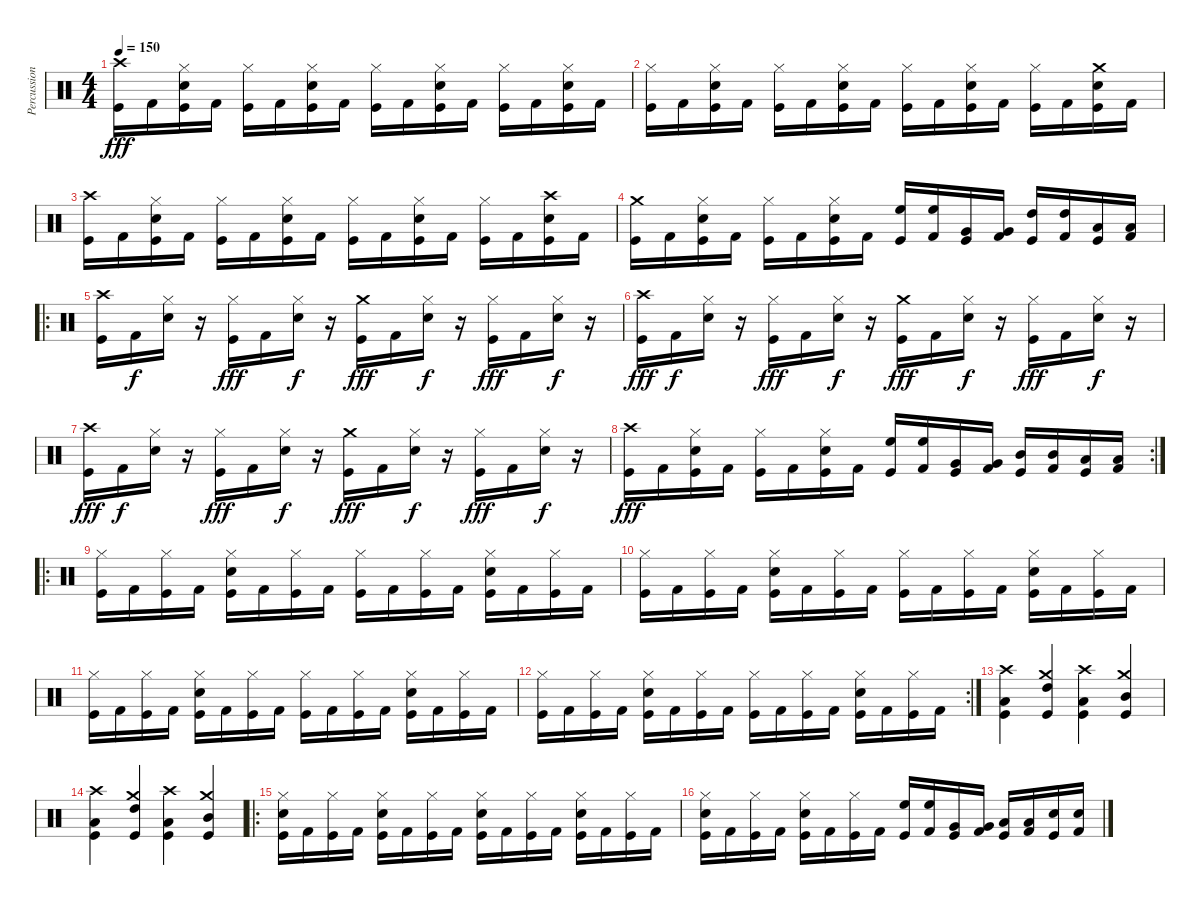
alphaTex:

\track ("Percussion" "Percussion") {instrument percussion}
\staff {score}
\articulation defaults
\ts (4 4)
\tempo 150
\clef neutral
\ks c
("Crash high (hit)" "Kick (hit)").16{dy fff} "Kick (hit) 2".16 ("Hi-Hat (closed)" "Electric Snare (hit)" "Kick (hit)").16 "Kick (hit) 2".16 ("Hi-Hat (closed)" "Kick (hit)").16 "Kick (hit) 2".16 ("Hi-Hat (closed)" "Electric Snare (hit)" "Kick (hit)").16 "Kick (hit) 2".16 ("Hi-Hat (closed)" "Kick (hit)").16 "Kick (hit) 2".16 ("Hi-Hat (closed)" "Electric Snare (hit)" "Kick (hit)").16 "Kick (hit) 2".16 ("Hi-Hat (closed)" "Kick (hit)").16 "Kick (hit) 2".16 ("Hi-Hat (closed)" "Electric Snare (hit)" "Kick (hit)").16 "Kick (hit) 2".16 |
("Hi-Hat (closed)" "Kick (hit)").16 "Kick (hit) 2".16 ("Hi-Hat (closed)" "Electric Snare (hit)" "Kick (hit)").16 "Kick (hit) 2".16 ("Hi-Hat (closed)" "Kick (hit)").16 "Kick (hit) 2".16 ("Hi-Hat (closed)" "Electric Snare (hit)" "Kick (hit)").16 "Kick (hit) 2".16 ("Hi-Hat (closed)" "Kick (hit)").16 "Kick (hit) 2".16 ("Hi-Hat (closed)" "Electric Snare (hit)" "Kick (hit)").16 "Kick (hit) 2".16 ("Hi-Hat (closed)" "Kick (hit)").16 "Kick (hit) 2".16 ("Crash medium (hit)" "Electric Snare (hit)" "Kick (hit)").16 "Kick (hit) 2".16 |
("Crash high (hit)" "Kick (hit)").16 "Kick (hit) 2".16 ("Hi-Hat (closed)" "Electric Snare (hit)" "Kick (hit)").16 "Kick (hit) 2".16 ("Hi-Hat (closed)" "Kick (hit)").16 "Kick (hit) 2".16 ("Hi-Hat (closed)" "Electric Snare (hit)" "Kick (hit)").16 "Kick (hit) 2".16 ("Hi-Hat (closed)" "Kick (hit)").16 "Kick (hit) 2".16 ("Hi-Hat (closed)" "Electric Snare (hit)" "Kick (hit)").16 "Kick (hit) 2".16 ("Hi-Hat (closed)" "Kick (hit)").16 "Kick (hit) 2".16 ("Crash high (hit)" "Electric Snare (hit)" "Kick (hit)").16 "Kick (hit) 2".16 |
("Crash medium (hit)" "Kick (hit)").16 "Kick (hit) 2".16 ("Hi-Hat (closed)" "Electric Snare (hit)" "Kick (hit)").16 "Kick (hit) 2".16 ("Hi-Hat (closed)" "Kick (hit)").16 "Kick (hit) 2".16 ("Hi-Hat (closed)" "Electric Snare (hit)" "Kick (hit)").16 "Kick (hit) 2".16 ("High Floor Tom (hit)" "Kick (hit)").16 ("High Floor Tom (hit)" "Kick (hit) 2").16 ("Very Low Tom (hit)" "Kick (hit)").16 ("Very Low Tom (hit)" "Kick (hit) 2").16 ("High Tom (hit)" "Kick (hit)").16 ("High Tom (hit)" "Kick (hit) 2").16 ("Low Floor Tom (hit)" "Kick (hit)").16 ("Low Floor Tom (hit)" "Kick (hit) 2").16 |
\ro
("Crash high (hit)" "Kick (hit)").16 "Kick (hit) 2".16{dy f} ("Hi-Hat (closed)" "Electric Snare (hit)").16 r.16 ("Hi-Hat (closed)" "Kick (hit)").16{dy fff} "Kick (hit) 2".16 ("Hi-Hat (closed)" "Electric Snare (hit)").16{dy f} r.16 ("Crash medium (hit)" "Kick (hit)").16{dy fff} "Kick (hit) 2".16 ("Hi-Hat (closed)" "Electric Snare (hit)").16{dy f} r.16 ("Hi-Hat (closed)" "Kick (hit)").16{dy fff} "Kick (hit) 2".16 ("Hi-Hat (closed)" "Electric Snare (hit)").16{dy f} r.16 |
("Crash high (hit)" "Kick (hit)").16{dy fff} "Kick (hit) 2".16{dy f} ("Hi-Hat (closed)" "Electric Snare (hit)").16 r.16 ("Hi-Hat (closed)" "Kick (hit)").16{dy fff} "Kick (hit) 2".16 ("Hi-Hat (closed)" "Electric Snare (hit)").16{dy f} r.16 ("Crash medium (hit)" "Kick (hit)").16{dy fff} "Kick (hit) 2".16 ("Hi-Hat (closed)" "Electric Snare (hit)").16{dy f} r.16 ("Hi-Hat (closed)" "Kick (hit)").16{dy fff} "Kick (hit) 2".16 ("Hi-Hat (closed)" "Electric Snare (hit)").16{dy f} r.16 |
("Crash high (hit)" "Kick (hit)").16{dy fff} "Kick (hit) 2".16{dy f} ("Hi-Hat (closed)" "Electric Snare (hit)").16 r.16 ("Hi-Hat (closed)" "Kick (hit)").16{dy fff} "Kick (hit) 2".16 ("Hi-Hat (closed)" "Electric Snare (hit)").16{dy f} r.16 ("Crash medium (hit)" "Kick (hit)").16{dy fff} "Kick (hit) 2".16 ("Hi-Hat (closed)" "Electric Snare (hit)").16{dy f} r.16 ("Hi-Hat (closed)" "Kick (hit)").16{dy fff} "Kick (hit) 2".16 ("Hi-Hat (closed)" "Electric Snare (hit)").16{dy f} r.16 |
\rc 2
("Crash high (hit)" "Kick (hit)").16{dy fff} "Kick (hit) 2".16 ("Hi-Hat (closed)" "Electric Snare (hit)" "Kick (hit)").16 "Kick (hit) 2".16 ("Hi-Hat (closed)" "Kick (hit)").16 "Kick (hit) 2".16 ("Hi-Hat (closed)" "Electric Snare (hit)" "Kick (hit)").16 "Kick (hit) 2".16 ("High Floor Tom (hit)" "Kick (hit)").16 ("High Floor Tom (hit)" "Kick (hit) 2").16 ("Very Low Tom (hit)" "Kick (hit)").16 ("Very Low Tom (hit)" "Kick (hit) 2").16 ("Mid Tom (hit)" "Kick (hit)").16 ("Mid Tom (hit)" "Kick (hit) 2").16 ("Low Floor Tom (hit)" "Kick (hit)").16 ("Low Floor Tom (hit)" "Kick (hit) 2").16 |
\ro
("Hi-Hat (closed)" "Kick (hit)").16 "Kick (hit) 2".16 ("Hi-Hat (closed)" "Kick (hit)").16 "Kick (hit) 2".16 ("Hi-Hat (closed)" "Electric Snare (hit)" "Kick (hit)").16 "Kick (hit) 2".16 ("Hi-Hat (closed)" "Kick (hit)").16 "Kick (hit) 2".16 ("Hi-Hat (closed)" "Kick (hit)").16 "Kick (hit) 2".16 ("Hi-Hat (closed)" "Kick (hit)").16 "Kick (hit) 2".16 ("Hi-Hat (closed)" "Electric Snare (hit)" "Kick (hit)").16 "Kick (hit) 2".16 ("Hi-Hat (closed)" "Kick (hit)").16 "Kick (hit) 2".16 |
("Hi-Hat (closed)" "Kick (hit)").16 "Kick (hit) 2".16 ("Hi-Hat (closed)" "Kick (hit)").16 "Kick (hit) 2".16 ("Hi-Hat (closed)" "Electric Snare (hit)" "Kick (hit)").16 "Kick (hit) 2".16 ("Hi-Hat (closed)" "Kick (hit)").16 "Kick (hit) 2".16 ("Hi-Hat (closed)" "Kick (hit)").16 "Kick (hit) 2".16 ("Hi-Hat (closed)" "Kick (hit)").16 "Kick (hit) 2".16 ("Hi-Hat (closed)" "Electric Snare (hit)" "Kick (hit)").16 "Kick (hit) 2".16 ("Hi-Hat (closed)" "Kick (hit)").16 "Kick (hit) 2".16 |
("Hi-Hat (closed)" "Kick (hit)").16 "Kick (hit) 2".16 ("Hi-Hat (closed)" "Kick (hit)").16 "Kick (hit) 2".16 ("Hi-Hat (closed)" "Electric Snare (hit)" "Kick (hit)").16 "Kick (hit) 2".16 ("Hi-Hat (closed)" "Kick (hit)").16 "Kick (hit) 2".16 ("Hi-Hat (closed)" "Kick (hit)").16 "Kick (hit) 2".16 ("Hi-Hat (closed)" "Kick (hit)").16 "Kick (hit) 2".16 ("Hi-Hat (closed)" "Electric Snare (hit)" "Kick (hit)").16 "Kick (hit) 2".16 ("Hi-Hat (closed)" "Kick (hit)").16 "Kick (hit) 2".16 |
\rc 2
("Hi-Hat (closed)" "Kick (hit)").16 "Kick (hit) 2".16 ("Hi-Hat (closed)" "Kick (hit)").16 "Kick (hit) 2".16 ("Hi-Hat (closed)" "Electric Snare (hit)" "Kick (hit)").16 "Kick (hit) 2".16 ("Hi-Hat (closed)" "Kick (hit)").16 "Kick (hit) 2".16 ("Hi-Hat (closed)" "Kick (hit)").16 "Kick (hit) 2".16 ("Hi-Hat (closed)" "Kick (hit)").16 "Kick (hit) 2".16 ("Hi-Hat (closed)" "Electric Snare (hit)" "Kick (hit)").16 "Kick (hit) 2".16 ("Hi-Hat (closed)" "Kick (hit)").16 "Kick (hit) 2".16 |
("Crash high (hit)" "Low Tom (hit)" "Kick (hit)").4 ("Crash medium (hit)" "High Tom (hit)" "Kick (hit)").4 ("Crash high (hit)" "Low Floor Tom (hit)" "Kick (hit)").4 ("Crash medium (hit)" "Mid Tom (hit)" "Kick (hit)").4 |
("Crash high (hit)" "Low Tom (hit)" "Kick (hit)").4 ("Crash medium (hit)" "High Tom (hit)" "Kick (hit)").4 ("Crash high (hit)" "Low Floor Tom (hit)" "Kick (hit)").4 ("Crash medium (hit)" "Mid Tom (hit)" "Kick (hit)").4 |
\ro
("Hi-Hat (closed)" "Electric Snare (hit)" "Kick (hit)").16 "Kick (hit) 2".16 ("Hi-Hat (closed)" "Kick (hit)").16 "Kick (hit) 2".16 ("Hi-Hat (closed)" "Electric Snare (hit)" "Kick (hit)").16 "Kick (hit) 2".16 ("Hi-Hat (closed)" "Kick (hit)").16 "Kick (hit) 2".16 ("Hi-Hat (closed)" "Electric Snare (hit)" "Kick (hit)").16 "Kick (hit) 2".16 ("Hi-Hat (closed)" "Kick (hit)").16 "Kick (hit) 2".16 ("Hi-Hat (closed)" "Electric Snare (hit)" "Kick (hit)").16 "Kick (hit) 2".16 ("Hi-Hat (closed)" "Kick (hit)").16 "Kick (hit) 2".16 |
("Hi-Hat (closed)" "Electric Snare (hit)" "Kick (hit)").16 "Kick (hit) 2".16 ("Hi-Hat (closed)" "Kick (hit)").16 "Kick (hit) 2".16 ("Hi-Hat (closed)" "Electric Snare (hit)" "Kick (hit)").16 "Kick (hit) 2".16 ("Hi-Hat (closed)" "Kick (hit)").16 "Kick (hit) 2".16 ("High Floor Tom (hit)" "Kick (hit)").16 ("High Floor Tom (hit)" "Kick (hit) 2").16 ("Very Low Tom (hit)" "Kick (hit)").16 ("Very Low Tom (hit)" "Kick (hit) 2").16 ("Low Tom (hit)" "Kick (hit)").16 ("Low Tom (hit)" "Kick (hit) 2").16 ("Electric Snare (hit)" "Kick (hit)").16 ("Electric Snare (hit)" "Kick (hit) 2").16
